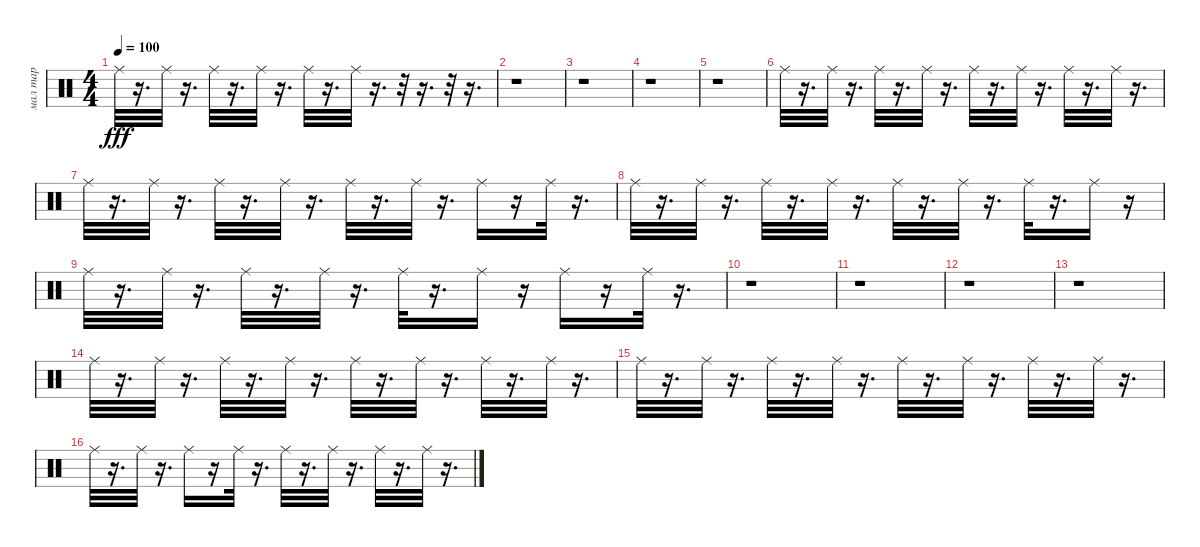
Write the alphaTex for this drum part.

\track ("мал тар" "мал тар") {instrument percussion}
\staff {score}
\articulation defaults
\ts (4 4)
\tempo 100
\clef neutral
\ks c "Ride (middle)".32{dy fff}
r.16{d} "Ride (middle)".32 r.16{d} "Ride (middle)".32 r.16{d} "Ride (middle)".32 r.16{d} "Ride (middle)".32 r.16{d} "Ride (middle)".32 r.16{d} r.32 r.16{d} r.32 r.16{d} |
r.1 |
r.1 |
r.1 |
r.1 |
"Ride (middle)".32 r.16{d} "Ride (middle)".32 r.16{d} "Ride (middle)".32 r.16{d} "Ride (middle)".32 r.16{d} "Ride (middle)".32 r.16{d} "Ride (middle)".32 r.16{d} "Ride (middle)".32 r.16{d} "Ride (middle)".32 r.16{d} |
"Ride (middle)".32 r.16{d} "Ride (middle)".32 r.16{d} "Ride (middle)".32 r.16{d} "Ride (middle)".32 r.16{d} "Ride (middle)".32 r.16{d} "Ride (middle)".32 r.16{d} "Ride (middle)".16 r.16 "Ride (middle)".32 r.16{d} |
"Ride (middle)".32 r.16{d} "Ride (middle)".32 r.16{d} "Ride (middle)".32 r.16{d} "Ride (middle)".32 r.16{d} "Ride (middle)".32 r.16{d} "Ride (middle)".32 r.16{d} "Ride (middle)".32 r.16{d} "Ride (middle)".16 r.16 |
"Ride (middle)".32 r.16{d} "Ride (middle)".32 r.16{d} "Ride (middle)".32 r.16{d} "Ride (middle)".32 r.16{d} "Ride (middle)".32 r.16{d} "Ride (middle)".16 r.16 "Ride (middle)".16 r.16 "Ride (middle)".32 r.16{d} |
r.1 |
r.1 |
r.1 |
r.1 |
"Ride (middle)".32 r.16{d} "Ride (middle)".32 r.16{d} "Ride (middle)".32 r.16{d} "Ride (middle)".32 r.16{d} "Ride (middle)".32 r.16{d} "Ride (middle)".32 r.16{d} "Ride (middle)".32 r.16{d} "Ride (middle)".32 r.16{d} |
"Ride (middle)".32 r.16{d} "Ride (middle)".32 r.16{d} "Ride (middle)".32 r.16{d} "Ride (middle)".32 r.16{d} "Ride (middle)".32 r.16{d} "Ride (middle)".32 r.16{d} "Ride (middle)".32 r.16{d} "Ride (middle)".32 r.16{d} |
"Ride (middle)".32 r.16{d} "Ride (middle)".32 r.16{d} "Ride (middle)".16 r.16 "Ride (middle)".32 r.16{d} "Ride (middle)".32 r.16{d} "Ride (middle)".32 r.16{d} "Ride (middle)".32 r.16{d} "Ride (middle)".32 r.16{d}
